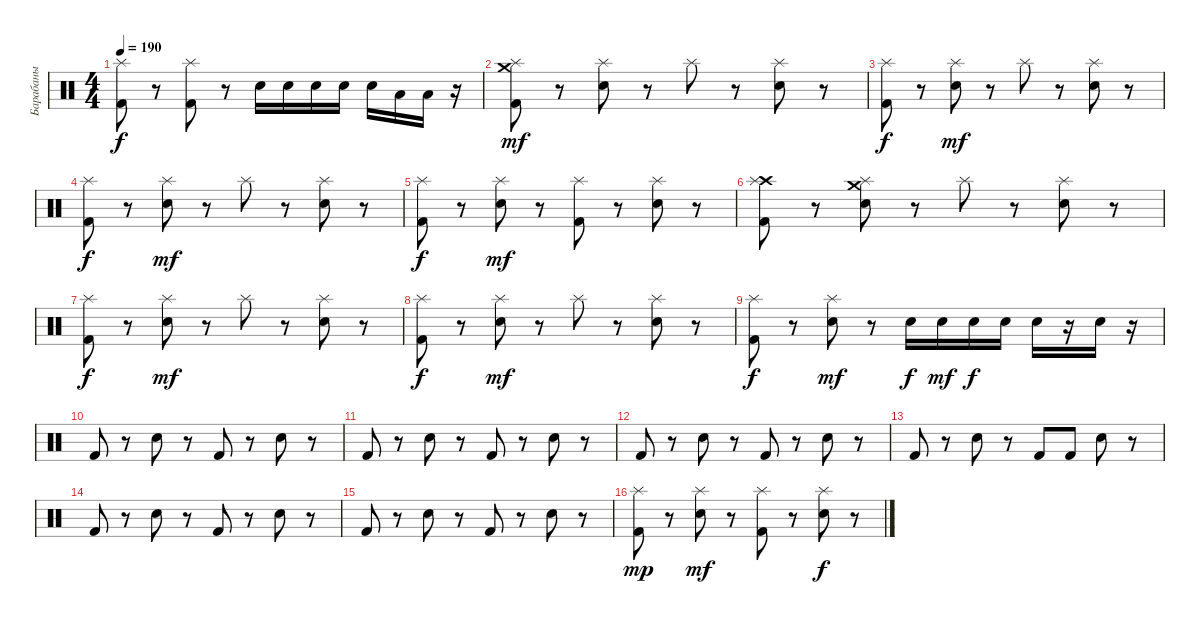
\track ("Барабаны" "Барабаны") {instrument percussion}
\staff {score}
\articulation defaults
\ts (4 4)
\tempo 190
\clef neutral
\ks c
("Splash (hit)" "Kick (hit) 2").8{dy f} r.8 ("Splash (hit)" "Kick (hit) 2").8 r.8 "Electric Snare (hit)".16 "Electric Snare (hit)".16 "Electric Snare (hit)".16 "Electric Snare (hit)".16 "Electric Snare (hit)".16 "Low Tom (hit)".16 "Low Tom (hit)".16 r.16 |
("Crash medium (hit)" "Splash (hit)" "Kick (hit) 2").8{dy mf} r.8 ("Splash (hit)" "Electric Snare (hit)").8 r.8 "Splash (hit)".8 r.8 ("Splash (hit)" "Electric Snare (hit)").8 r.8 |
("Splash (hit)" "Kick (hit) 2").8{dy f} r.8 ("Splash (hit)" "Electric Snare (hit)").8{dy mf} r.8 "Splash (hit)".8 r.8 ("Splash (hit)" "Electric Snare (hit)").8 r.8 |
("Splash (hit)" "Kick (hit) 2").8{dy f} r.8 ("Splash (hit)" "Electric Snare (hit)").8{dy mf} r.8 "Splash (hit)".8 r.8 ("Splash (hit)" "Electric Snare (hit)").8 r.8 |
("Splash (hit)" "Kick (hit) 2").8{dy f} r.8 ("Splash (hit)" "Electric Snare (hit)").8{dy mf} r.8 ("Kick (hit) 2" "Splash (hit)").8 r.8 ("Splash (hit)" "Electric Snare (hit)").8 r.8 |
("Crash high (hit)" "Splash (hit)" "Kick (hit) 2").8 r.8 ("Crash medium (hit)" "Splash (hit)" "Electric Snare (hit)").8 r.8 "Splash (hit)".8 r.8 ("Splash (hit)" "Electric Snare (hit)").8 r.8 |
("Splash (hit)" "Kick (hit) 2").8{dy f} r.8 ("Splash (hit)" "Electric Snare (hit)").8{dy mf} r.8 "Splash (hit)".8 r.8 ("Splash (hit)" "Electric Snare (hit)").8 r.8 |
("Splash (hit)" "Kick (hit) 2").8{dy f} r.8 ("Splash (hit)" "Electric Snare (hit)").8{dy mf} r.8 "Splash (hit)".8 r.8 ("Splash (hit)" "Electric Snare (hit)").8 r.8 |
("Splash (hit)" "Kick (hit) 2").8{dy f} r.8 ("Splash (hit)" "Electric Snare (hit)").8{dy mf} r.8 "Electric Snare (hit)".16{dy f} "Electric Snare (hit)".16{dy mf} "Electric Snare (hit)".16{dy f} "Electric Snare (hit)".16 "Electric Snare (hit)".16 r.16 "Electric Snare (hit)".16 r.16 |
"Kick (hit) 2".8 r.8 "Electric Snare (hit)".8 r.8 "Kick (hit) 2".8 r.8 "Electric Snare (hit)".8 r.8 |
"Kick (hit) 2".8 r.8 "Electric Snare (hit)".8 r.8 "Kick (hit) 2".8 r.8 "Electric Snare (hit)".8 r.8 |
"Kick (hit) 2".8 r.8 "Electric Snare (hit)".8 r.8 "Kick (hit) 2".8 r.8 "Electric Snare (hit)".8 r.8 |
"Kick (hit) 2".8 r.8 "Electric Snare (hit)".8 r.8 "Kick (hit) 2".8 "Kick (hit) 2".8 "Electric Snare (hit)".8 r.8 |
"Kick (hit) 2".8 r.8 "Electric Snare (hit)".8 r.8 "Kick (hit) 2".8 r.8 "Electric Snare (hit)".8 r.8 |
"Kick (hit) 2".8 r.8 "Electric Snare (hit)".8 r.8 "Kick (hit) 2".8 r.8 "Electric Snare (hit)".8 r.8 |
("Splash (hit)" "Kick (hit) 2").8{dy mp} r.8 ("Splash (hit)" "Electric Snare (hit)").8{dy mf} r.8 ("Splash (hit)" "Kick (hit) 2").8 r.8 ("Splash (hit)" "Electric Snare (hit)").8{dy f} r.8
